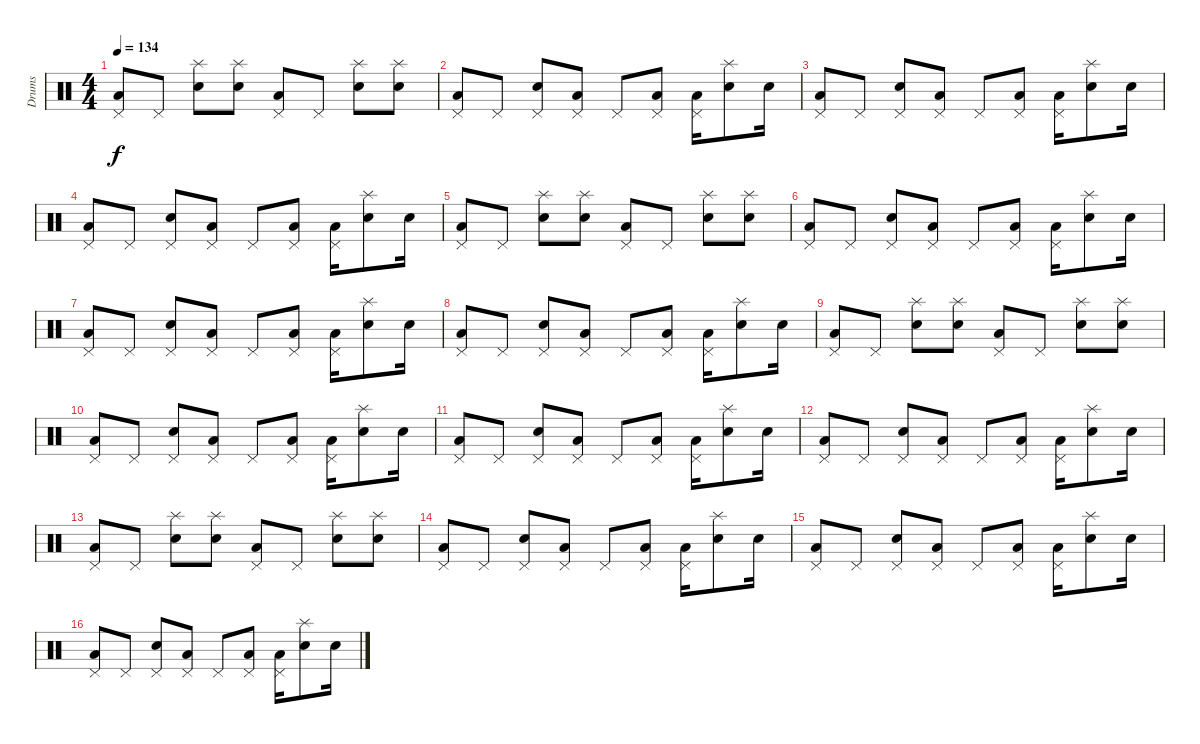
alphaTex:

\track ("Drums" "Drums") {instrument percussion}
\staff {score}
\articulation defaults
\ts (4 4)
\tempo 134
\clef neutral
\ks c
("Low Floor Tom (hit)" "Pedal Hi-Hat (hit)").8{dy f} "Pedal Hi-Hat (hit)".8 ("Electric Snare (hit)" "Splash (hit)").8 ("Electric Snare (hit)" "Splash (hit)").8 ("Low Floor Tom (hit)" "Pedal Hi-Hat (hit)").8 "Pedal Hi-Hat (hit)".8 ("Electric Snare (hit)" "Splash (hit)").8 ("Electric Snare (hit)" "Splash (hit)").8 |
("Low Floor Tom (hit)" "Pedal Hi-Hat (hit)").8 "Pedal Hi-Hat (hit)".8 ("Electric Snare (hit)" "Pedal Hi-Hat (hit)").8 ("Low Floor Tom (hit)" "Pedal Hi-Hat (hit)").8 "Pedal Hi-Hat (hit)".8 ("Low Floor Tom (hit)" "Pedal Hi-Hat (hit)").8 ("Low Floor Tom (hit)" "Pedal Hi-Hat (hit)").16 ("Electric Snare (hit)" "Splash (hit)").8 "Electric Snare (hit)".16 |
("Low Floor Tom (hit)" "Pedal Hi-Hat (hit)").8 "Pedal Hi-Hat (hit)".8 ("Electric Snare (hit)" "Pedal Hi-Hat (hit)").8 ("Low Floor Tom (hit)" "Pedal Hi-Hat (hit)").8 "Pedal Hi-Hat (hit)".8 ("Low Floor Tom (hit)" "Pedal Hi-Hat (hit)").8 ("Low Floor Tom (hit)" "Pedal Hi-Hat (hit)").16 ("Electric Snare (hit)" "Splash (hit)").8 "Electric Snare (hit)".16 |
("Low Floor Tom (hit)" "Pedal Hi-Hat (hit)").8 "Pedal Hi-Hat (hit)".8 ("Electric Snare (hit)" "Pedal Hi-Hat (hit)").8 ("Low Floor Tom (hit)" "Pedal Hi-Hat (hit)").8 "Pedal Hi-Hat (hit)".8 ("Low Floor Tom (hit)" "Pedal Hi-Hat (hit)").8 ("Low Floor Tom (hit)" "Pedal Hi-Hat (hit)").16 ("Electric Snare (hit)" "Splash (hit)").8 "Electric Snare (hit)".16 |
("Low Floor Tom (hit)" "Pedal Hi-Hat (hit)").8 "Pedal Hi-Hat (hit)".8 ("Electric Snare (hit)" "Splash (hit)").8 ("Electric Snare (hit)" "Splash (hit)").8 ("Low Floor Tom (hit)" "Pedal Hi-Hat (hit)").8 "Pedal Hi-Hat (hit)".8 ("Electric Snare (hit)" "Splash (hit)").8 ("Electric Snare (hit)" "Splash (hit)").8 |
("Low Floor Tom (hit)" "Pedal Hi-Hat (hit)").8 "Pedal Hi-Hat (hit)".8 ("Electric Snare (hit)" "Pedal Hi-Hat (hit)").8 ("Low Floor Tom (hit)" "Pedal Hi-Hat (hit)").8 "Pedal Hi-Hat (hit)".8 ("Low Floor Tom (hit)" "Pedal Hi-Hat (hit)").8 ("Low Floor Tom (hit)" "Pedal Hi-Hat (hit)").16 ("Electric Snare (hit)" "Splash (hit)").8 "Electric Snare (hit)".16 |
("Low Floor Tom (hit)" "Pedal Hi-Hat (hit)").8 "Pedal Hi-Hat (hit)".8 ("Electric Snare (hit)" "Pedal Hi-Hat (hit)").8 ("Low Floor Tom (hit)" "Pedal Hi-Hat (hit)").8 "Pedal Hi-Hat (hit)".8 ("Low Floor Tom (hit)" "Pedal Hi-Hat (hit)").8 ("Low Floor Tom (hit)" "Pedal Hi-Hat (hit)").16 ("Electric Snare (hit)" "Splash (hit)").8 "Electric Snare (hit)".16 |
("Low Floor Tom (hit)" "Pedal Hi-Hat (hit)").8 "Pedal Hi-Hat (hit)".8 ("Electric Snare (hit)" "Pedal Hi-Hat (hit)").8 ("Low Floor Tom (hit)" "Pedal Hi-Hat (hit)").8 "Pedal Hi-Hat (hit)".8 ("Low Floor Tom (hit)" "Pedal Hi-Hat (hit)").8 ("Low Floor Tom (hit)" "Pedal Hi-Hat (hit)").16 ("Electric Snare (hit)" "Splash (hit)").8 "Electric Snare (hit)".16 |
("Low Floor Tom (hit)" "Pedal Hi-Hat (hit)").8 "Pedal Hi-Hat (hit)".8 ("Electric Snare (hit)" "Splash (hit)").8 ("Electric Snare (hit)" "Splash (hit)").8 ("Low Floor Tom (hit)" "Pedal Hi-Hat (hit)").8 "Pedal Hi-Hat (hit)".8 ("Electric Snare (hit)" "Splash (hit)").8 ("Electric Snare (hit)" "Splash (hit)").8 |
("Low Floor Tom (hit)" "Pedal Hi-Hat (hit)").8 "Pedal Hi-Hat (hit)".8 ("Electric Snare (hit)" "Pedal Hi-Hat (hit)").8 ("Low Floor Tom (hit)" "Pedal Hi-Hat (hit)").8 "Pedal Hi-Hat (hit)".8 ("Low Floor Tom (hit)" "Pedal Hi-Hat (hit)").8 ("Low Floor Tom (hit)" "Pedal Hi-Hat (hit)").16 ("Electric Snare (hit)" "Splash (hit)").8 "Electric Snare (hit)".16 |
("Low Floor Tom (hit)" "Pedal Hi-Hat (hit)").8 "Pedal Hi-Hat (hit)".8 ("Electric Snare (hit)" "Pedal Hi-Hat (hit)").8 ("Low Floor Tom (hit)" "Pedal Hi-Hat (hit)").8 "Pedal Hi-Hat (hit)".8 ("Low Floor Tom (hit)" "Pedal Hi-Hat (hit)").8 ("Low Floor Tom (hit)" "Pedal Hi-Hat (hit)").16 ("Electric Snare (hit)" "Splash (hit)").8 "Electric Snare (hit)".16 |
("Low Floor Tom (hit)" "Pedal Hi-Hat (hit)").8 "Pedal Hi-Hat (hit)".8 ("Electric Snare (hit)" "Pedal Hi-Hat (hit)").8 ("Low Floor Tom (hit)" "Pedal Hi-Hat (hit)").8 "Pedal Hi-Hat (hit)".8 ("Low Floor Tom (hit)" "Pedal Hi-Hat (hit)").8 ("Low Floor Tom (hit)" "Pedal Hi-Hat (hit)").16 ("Electric Snare (hit)" "Splash (hit)").8 "Electric Snare (hit)".16 |
("Low Floor Tom (hit)" "Pedal Hi-Hat (hit)").8 "Pedal Hi-Hat (hit)".8 ("Electric Snare (hit)" "Splash (hit)").8 ("Electric Snare (hit)" "Splash (hit)").8 ("Low Floor Tom (hit)" "Pedal Hi-Hat (hit)").8 "Pedal Hi-Hat (hit)".8 ("Electric Snare (hit)" "Splash (hit)").8 ("Electric Snare (hit)" "Splash (hit)").8 |
("Low Floor Tom (hit)" "Pedal Hi-Hat (hit)").8 "Pedal Hi-Hat (hit)".8 ("Electric Snare (hit)" "Pedal Hi-Hat (hit)").8 ("Low Floor Tom (hit)" "Pedal Hi-Hat (hit)").8 "Pedal Hi-Hat (hit)".8 ("Low Floor Tom (hit)" "Pedal Hi-Hat (hit)").8 ("Low Floor Tom (hit)" "Pedal Hi-Hat (hit)").16 ("Electric Snare (hit)" "Splash (hit)").8 "Electric Snare (hit)".16 |
("Low Floor Tom (hit)" "Pedal Hi-Hat (hit)").8 "Pedal Hi-Hat (hit)".8 ("Electric Snare (hit)" "Pedal Hi-Hat (hit)").8 ("Low Floor Tom (hit)" "Pedal Hi-Hat (hit)").8 "Pedal Hi-Hat (hit)".8 ("Low Floor Tom (hit)" "Pedal Hi-Hat (hit)").8 ("Low Floor Tom (hit)" "Pedal Hi-Hat (hit)").16 ("Electric Snare (hit)" "Splash (hit)").8 "Electric Snare (hit)".16 |
("Low Floor Tom (hit)" "Pedal Hi-Hat (hit)").8 "Pedal Hi-Hat (hit)".8 ("Electric Snare (hit)" "Pedal Hi-Hat (hit)").8 ("Low Floor Tom (hit)" "Pedal Hi-Hat (hit)").8 "Pedal Hi-Hat (hit)".8 ("Low Floor Tom (hit)" "Pedal Hi-Hat (hit)").8 ("Low Floor Tom (hit)" "Pedal Hi-Hat (hit)").16 ("Electric Snare (hit)" "Splash (hit)").8 "Electric Snare (hit)".16
